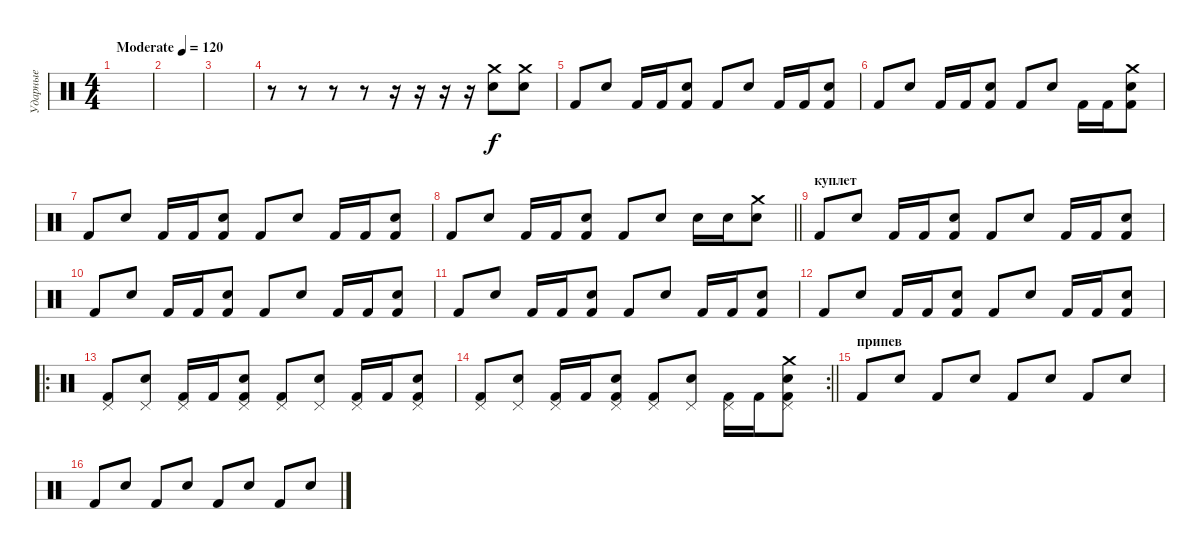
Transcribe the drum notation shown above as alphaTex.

\track ("Ударные" "Ударные") {instrument percussion}
\staff {score}
\articulation defaults
\ts (4 4)
\tempo (120 "Moderate")
\clef neutral
\ks c
|
|
|
r.8 r.8 r.8 r.8 r.16 r.16 r.16 r.16 ("Crash medium (hit)" "Electric Snare (hit)").8 ("Crash medium (hit)" "Electric Snare (hit)").8 |
"Kick (hit) 2".8 "Electric Snare (hit)".8 "Kick (hit) 2".16 "Kick (hit) 2".16 ("Kick (hit) 2" "Electric Snare (hit)").8 "Kick (hit) 2".8 "Electric Snare (hit)".8 "Kick (hit) 2".16 "Kick (hit) 2".16 ("Kick (hit) 2" "Electric Snare (hit)").8 |
"Kick (hit) 2".8 "Electric Snare (hit)".8 "Kick (hit) 2".16 "Kick (hit) 2".16 ("Kick (hit) 2" "Electric Snare (hit)").8 "Kick (hit) 2".8 "Electric Snare (hit)".8 "Kick (hit) 2".16 "Kick (hit) 2".16 ("Kick (hit) 2" "Electric Snare (hit)" "Crash medium (hit)").8 |
"Kick (hit) 2".8 "Electric Snare (hit)".8 "Kick (hit) 2".16 "Kick (hit) 2".16 ("Kick (hit) 2" "Electric Snare (hit)").8 "Kick (hit) 2".8 "Electric Snare (hit)".8 "Kick (hit) 2".16 "Kick (hit) 2".16 ("Kick (hit) 2" "Electric Snare (hit)").8 |
\barLineRight lightlight "Kick (hit) 2".8 "Electric Snare (hit)".8 "Kick (hit) 2".16 "Kick (hit) 2".16
("Kick (hit) 2" "Electric Snare (hit)").8 "Kick (hit) 2".8 "Electric Snare (hit)".8 "Electric Snare (hit)".16 "Electric Snare (hit)".16 ("Electric Snare (hit)" "Crash medium (hit)").8 |
\section ("" "куплет")
"Kick (hit) 2".8 "Electric Snare (hit)".8 "Kick (hit) 2".16 "Kick (hit) 2".16 ("Kick (hit) 2" "Electric Snare (hit)").8 "Kick (hit) 2".8 "Electric Snare (hit)".8 "Kick (hit) 2".16 "Kick (hit) 2".16 ("Kick (hit) 2" "Electric Snare (hit)").8 |
"Kick (hit) 2".8 "Electric Snare (hit)".8 "Kick (hit) 2".16 "Kick (hit) 2".16 ("Kick (hit) 2" "Electric Snare (hit)").8 "Kick (hit) 2".8 "Electric Snare (hit)".8 "Kick (hit) 2".16 "Kick (hit) 2".16 ("Kick (hit) 2" "Electric Snare (hit)").8 |
"Kick (hit) 2".8 "Electric Snare (hit)".8 "Kick (hit) 2".16 "Kick (hit) 2".16 ("Kick (hit) 2" "Electric Snare (hit)").8 "Kick (hit) 2".8 "Electric Snare (hit)".8 "Kick (hit) 2".16 "Kick (hit) 2".16 ("Kick (hit) 2" "Electric Snare (hit)").8 |
"Kick (hit) 2".8 "Electric Snare (hit)".8 "Kick (hit) 2".16 "Kick (hit) 2".16 ("Kick (hit) 2" "Electric Snare (hit)").8 "Kick (hit) 2".8 "Electric Snare (hit)".8 "Kick (hit) 2".16 "Kick (hit) 2".16 ("Kick (hit) 2" "Electric Snare (hit)").8 |
\ro
("Kick (hit) 2" "Pedal Hi-Hat (hit)").8 ("Pedal Hi-Hat (hit)" "Electric Snare (hit)").8 ("Kick (hit) 2" "Pedal Hi-Hat (hit)").16 "Kick (hit) 2".16 ("Kick (hit) 2" "Pedal Hi-Hat (hit)" "Electric Snare (hit)").8 ("Kick (hit) 2" "Pedal Hi-Hat (hit)").8 ("Pedal Hi-Hat (hit)" "Electric Snare (hit)").8 ("Kick (hit) 2" "Pedal Hi-Hat (hit)").16 "Kick (hit) 2".16 ("Kick (hit) 2" "Pedal Hi-Hat (hit)" "Electric Snare (hit)").8 |
\rc 2
\barLineRight lightlight
("Kick (hit) 2" "Pedal Hi-Hat (hit)").8 ("Pedal Hi-Hat (hit)" "Electric Snare (hit)").8 ("Kick (hit) 2" "Pedal Hi-Hat (hit)").16 "Kick (hit) 2".16 ("Kick (hit) 2" "Pedal Hi-Hat (hit)" "Electric Snare (hit)").8 ("Kick (hit) 2" "Pedal Hi-Hat (hit)").8 ("Pedal Hi-Hat (hit)" "Electric Snare (hit)").8 ("Kick (hit) 2" "Pedal Hi-Hat (hit)").16 "Kick (hit) 2".16 ("Kick (hit) 2" "Pedal Hi-Hat (hit)" "Electric Snare (hit)" "Crash medium (hit)").8 |
\section ("" "припев")
"Kick (hit) 2".8 "Electric Snare (hit)".8 "Kick (hit) 2".8 "Electric Snare (hit)".8 "Kick (hit) 2".8 "Electric Snare (hit)".8 "Kick (hit) 2".8 "Electric Snare (hit)".8 |
"Kick (hit) 2".8 "Electric Snare (hit)".8 "Kick (hit) 2".8 "Electric Snare (hit)".8 "Kick (hit) 2".8 "Electric Snare (hit)".8 "Kick (hit) 2".8 "Electric Snare (hit)".8
